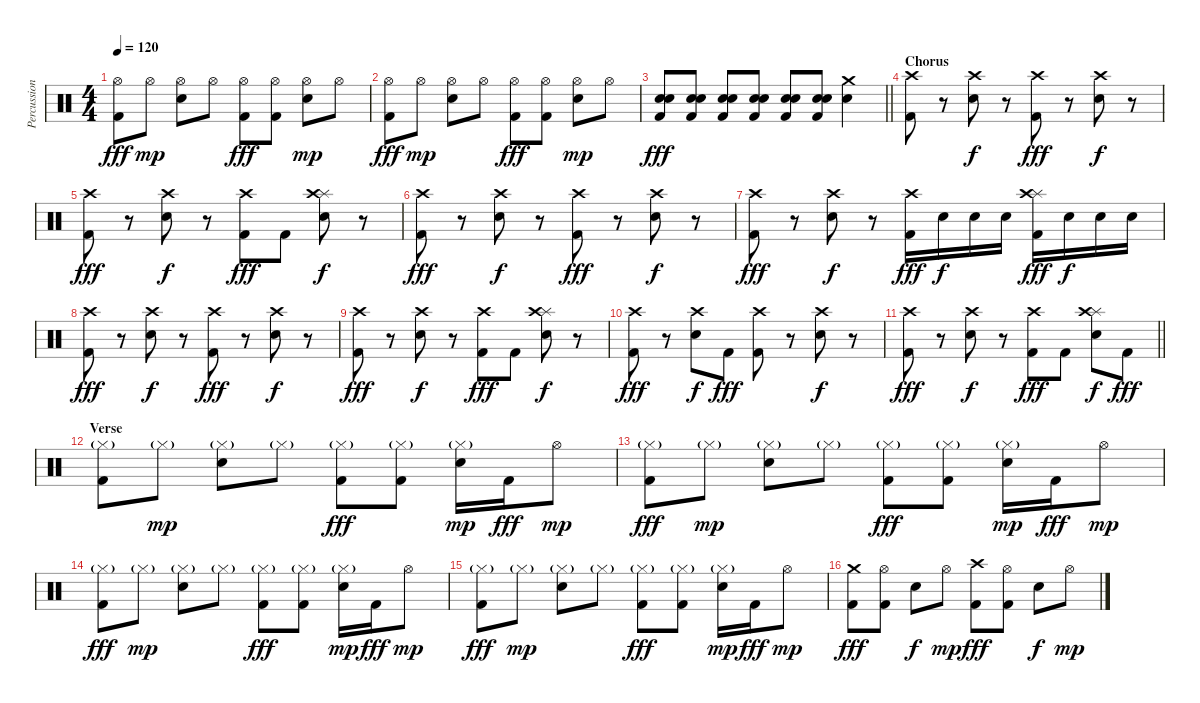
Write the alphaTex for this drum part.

\track ("Percussion" "Percussion") {instrument percussion}
\staff {score}
\articulation defaults
\ts (4 4)
\tempo 120
\clef neutral
\ks c
("Hi-Hat (open)" "Kick (hit) 2").8{dy fff} "Hi-Hat (open)".8{dy mp} ("Hi-Hat (open)" "Electric Snare (hit)").8 "Hi-Hat (open)".8 ("Hi-Hat (open)" "Kick (hit) 2").8{dy fff} ("Hi-Hat (open)" "Kick (hit) 2").8 ("Hi-Hat (open)" "Electric Snare (hit)").8{dy mp} "Hi-Hat (open)".8 |
("Hi-Hat (open)" "Kick (hit) 2").8{dy fff} "Hi-Hat (open)".8{dy mp} ("Hi-Hat (open)" "Electric Snare (hit)").8 "Hi-Hat (open)".8 ("Hi-Hat (open)" "Kick (hit) 2").8{dy fff} ("Hi-Hat (open)" "Kick (hit) 2").8 ("Hi-Hat (open)" "Electric Snare (hit)").8{dy mp} "Hi-Hat (open)".8 |
\barLineRight lightlight
("Electric Snare (hit)" "Electric Snare (hit)" "Kick (hit) 2").8{dy fff} ("Electric Snare (hit)" "Electric Snare (hit)" "Kick (hit) 2").8 ("Electric Snare (hit)" "Electric Snare (hit)" "Kick (hit) 2").8 ("Electric Snare (hit)" "Electric Snare (hit)" "Kick (hit) 2").8 ("Electric Snare (hit)" "Electric Snare (hit)" "Kick (hit) 2").8 ("Electric Snare (hit)" "Electric Snare (hit)" "Kick (hit) 2").8 ("Crash medium (hit)" "Snare (hit) 2").4 |
\section ("" "Chorus")
("Crash high (hit)" "Kick (hit) 2").8 r.8 ("Electric Snare (hit)" "Crash high (hit)").8{dy f} r.8 ("Crash high (hit)" "Kick (hit) 2").8{dy fff} r.8 ("Electric Snare (hit)" "Crash high (hit)").8{dy f} r.8 |
("Crash high (hit)" "Kick (hit) 2").8{dy fff} r.8 ("Electric Snare (hit)" "Crash high (hit)").8{dy f} r.8 ("Crash high (hit)" "Kick (hit) 2").8{dy fff} "Kick (hit) 2".8 ("Splash (hit)" "Electric Snare (hit)" "Crash high (hit)").8{dy f} r.8 |
("Crash high (hit)" "Kick (hit) 2").8{dy fff} r.8 ("Electric Snare (hit)" "Crash high (hit)").8{dy f} r.8 ("Crash high (hit)" "Kick (hit) 2").8{dy fff} r.8 ("Electric Snare (hit)" "Crash high (hit)").8{dy f} r.8 |
("Crash high (hit)" "Kick (hit) 2").8{dy fff} r.8 ("Electric Snare (hit)" "Crash high (hit)").8{dy f} r.8 ("Crash high (hit)" "Kick (hit) 2").16{dy fff} "Snare (hit) 2".16{dy f} "Electric Snare (hit)".16 "Snare (hit) 2".16 ("Splash (hit)" "Crash high (hit)" "Kick (hit) 2").16{dy fff} "Snare (hit) 2".16{dy f} "Electric Snare (hit)".16 "Snare (hit) 2".16 |
("Crash high (hit)" "Kick (hit) 2").8{dy fff} r.8 ("Electric Snare (hit)" "Crash high (hit)").8{dy f} r.8 ("Crash high (hit)" "Kick (hit) 2").8{dy fff} r.8 ("Electric Snare (hit)" "Crash high (hit)").8{dy f} r.8 |
("Crash high (hit)" "Kick (hit) 2").8{dy fff} r.8 ("Electric Snare (hit)" "Crash high (hit)").8{dy f} r.8 ("Crash high (hit)" "Kick (hit) 2").8{dy fff} "Kick (hit) 2".8 ("Splash (hit)" "Electric Snare (hit)" "Crash high (hit)").8{dy f} r.8 |
("Crash high (hit)" "Kick (hit) 2").8{dy fff} r.8 ("Electric Snare (hit)" "Crash high (hit)").8{dy f} "Kick (hit) 2".8{dy fff} ("Crash high (hit)" "Kick (hit) 2").8 r.8 ("Electric Snare (hit)" "Crash high (hit)").8{dy f} r.8 |
\barLineRight lightlight
("Crash high (hit)" "Kick (hit) 2").8{dy fff} r.8 ("Electric Snare (hit)" "Crash high (hit)").8{dy f} r.8 ("Crash high (hit)" "Kick (hit) 2").8{dy fff} "Kick (hit) 2".8 ("Splash (hit)" "Electric Snare (hit)" "Crash high (hit)").8{dy f} "Kick (hit) 2".8{dy fff} |
\section ("" "Verse")
("Hi-Hat (closed)"{g} "Kick (hit) 2").8 "Hi-Hat (closed)"{g}.8{dy mp} ("Hi-Hat (closed)"{g} "Electric Snare (hit)").8 "Hi-Hat (closed)"{g}.8 ("Hi-Hat (closed)"{g} "Kick (hit) 2").8{dy fff} ("Hi-Hat (closed)"{g} "Kick (hit) 2").8 ("Hi-Hat (closed)"{g} "Electric Snare (hit)").16{dy mp} "Kick (hit) 2".16{dy fff} "Hi-Hat (open)".8{dy mp} |
("Hi-Hat (closed)"{g} "Kick (hit) 2").8{dy fff} "Hi-Hat (closed)"{g}.8{dy mp} ("Hi-Hat (closed)"{g} "Electric Snare (hit)").8 "Hi-Hat (closed)"{g}.8 ("Hi-Hat (closed)"{g} "Kick (hit) 2").8{dy fff} ("Hi-Hat (closed)"{g} "Kick (hit) 2").8 ("Hi-Hat (closed)"{g} "Electric Snare (hit)").16{dy mp} "Kick (hit) 2".16{dy fff} "Hi-Hat (open)".8{dy mp} |
("Hi-Hat (closed)"{g} "Kick (hit) 2").8{dy fff} "Hi-Hat (closed)"{g}.8{dy mp} ("Hi-Hat (closed)"{g} "Electric Snare (hit)").8 "Hi-Hat (closed)"{g}.8 ("Hi-Hat (closed)"{g} "Kick (hit) 2").8{dy fff} ("Hi-Hat (closed)"{g} "Kick (hit) 2").8 ("Hi-Hat (closed)"{g} "Electric Snare (hit)").16{dy mp} "Kick (hit) 2".16{dy fff} "Hi-Hat (open)".8{dy mp} |
("Hi-Hat (closed)"{g} "Kick (hit) 2").8{dy fff} "Hi-Hat (closed)"{g}.8{dy mp} ("Hi-Hat (closed)"{g} "Electric Snare (hit)").8 "Hi-Hat (closed)"{g}.8 ("Hi-Hat (closed)"{g} "Kick (hit) 2").8{dy fff} ("Hi-Hat (closed)"{g} "Kick (hit) 2").8 ("Hi-Hat (closed)"{g} "Electric Snare (hit)").16{dy mp} "Kick (hit) 2".16{dy fff} "Hi-Hat (open)".8{dy mp} |
("Crash medium (hit)" "Kick (hit) 2").8{dy fff} ("Hi-Hat (open)" "Kick (hit) 2").8 "Electric Snare (hit)".8{dy f} "Hi-Hat (open)".8{dy mp} ("Crash high (hit)" "Kick (hit) 2").8{dy fff} ("Hi-Hat (open)" "Kick (hit) 2").8 "Electric Snare (hit)".8{dy f} "Hi-Hat (open)".8{dy mp}
